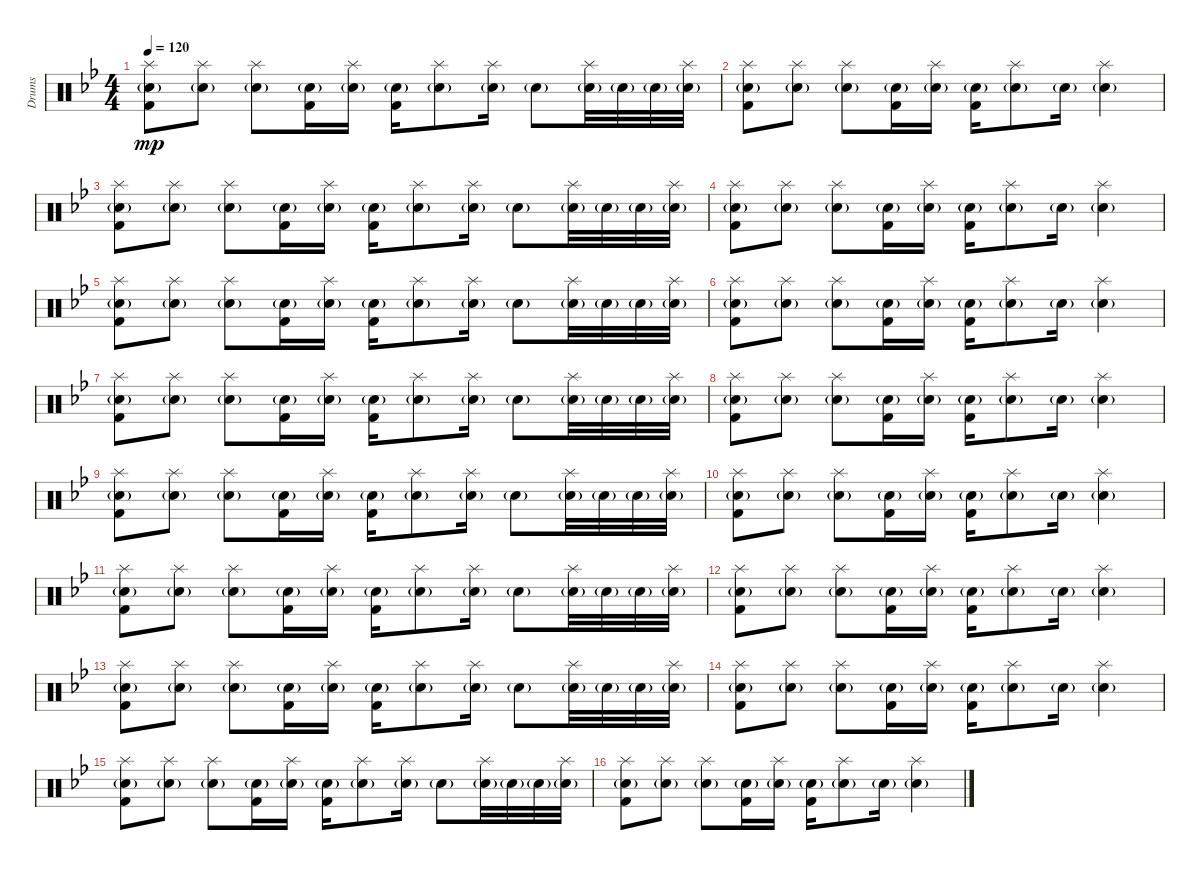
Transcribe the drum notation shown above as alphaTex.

\track ("Drums" "Drums") {instrument percussion}
\staff {score}
\articulation defaults
\ts (4 4)
\tempo 120
\clef neutral
\ks bb
("Splash (hit)" "Electric Snare (hit)"{g} "Kick (hit) 2").8{dy mp} ("Splash (hit)" "Electric Snare (hit)"{g}).8 ("Splash (hit)" "Electric Snare (hit)"{g}).8 ("Electric Snare (hit)"{g} "Kick (hit) 2").16 ("Splash (hit)" "Electric Snare (hit)"{g}).16 ("Electric Snare (hit)"{g} "Kick (hit) 2").16 ("Splash (hit)" "Electric Snare (hit)"{g}).8 ("Splash (hit)" "Electric Snare (hit)"{g}).16 "Electric Snare (hit)"{g}.8 ("Splash (hit)" "Electric Snare (hit)"{g}).32 "Electric Snare (hit)"{g}.32 "Electric Snare (hit)"{g}.32 ("Splash (hit)" "Electric Snare (hit)"{g}).32 |
("Splash (hit)" "Electric Snare (hit)"{g} "Kick (hit) 2").8 ("Splash (hit)" "Electric Snare (hit)"{g}).8 ("Splash (hit)" "Electric Snare (hit)"{g}).8 ("Electric Snare (hit)"{g} "Kick (hit) 2").16 ("Splash (hit)" "Electric Snare (hit)"{g}).16 ("Electric Snare (hit)"{g} "Kick (hit) 2").16 ("Splash (hit)" "Electric Snare (hit)"{g}).8 "Electric Snare (hit)"{g}.16 ("Splash (hit)" "Electric Snare (hit)"{g}).4 |
("Splash (hit)" "Electric Snare (hit)"{g} "Kick (hit) 2").8 ("Splash (hit)" "Electric Snare (hit)"{g}).8 ("Splash (hit)" "Electric Snare (hit)"{g}).8 ("Electric Snare (hit)"{g} "Kick (hit) 2").16 ("Splash (hit)" "Electric Snare (hit)"{g}).16 ("Electric Snare (hit)"{g} "Kick (hit) 2").16 ("Splash (hit)" "Electric Snare (hit)"{g}).8 ("Splash (hit)" "Electric Snare (hit)"{g}).16 "Electric Snare (hit)"{g}.8 ("Splash (hit)" "Electric Snare (hit)"{g}).32 "Electric Snare (hit)"{g}.32 "Electric Snare (hit)"{g}.32 ("Splash (hit)" "Electric Snare (hit)"{g}).32 |
("Splash (hit)" "Electric Snare (hit)"{g} "Kick (hit) 2").8 ("Splash (hit)" "Electric Snare (hit)"{g}).8 ("Splash (hit)" "Electric Snare (hit)"{g}).8 ("Electric Snare (hit)"{g} "Kick (hit) 2").16 ("Splash (hit)" "Electric Snare (hit)"{g}).16 ("Electric Snare (hit)"{g} "Kick (hit) 2").16 ("Splash (hit)" "Electric Snare (hit)"{g}).8 "Electric Snare (hit)"{g}.16 ("Splash (hit)" "Electric Snare (hit)"{g}).4 |
("Splash (hit)" "Electric Snare (hit)"{g} "Kick (hit) 2").8 ("Splash (hit)" "Electric Snare (hit)"{g}).8 ("Splash (hit)" "Electric Snare (hit)"{g}).8 ("Electric Snare (hit)"{g} "Kick (hit) 2").16 ("Splash (hit)" "Electric Snare (hit)"{g}).16 ("Electric Snare (hit)"{g} "Kick (hit) 2").16 ("Splash (hit)" "Electric Snare (hit)"{g}).8 ("Splash (hit)" "Electric Snare (hit)"{g}).16 "Electric Snare (hit)"{g}.8 ("Splash (hit)" "Electric Snare (hit)"{g}).32 "Electric Snare (hit)"{g}.32 "Electric Snare (hit)"{g}.32 ("Splash (hit)" "Electric Snare (hit)"{g}).32 |
("Splash (hit)" "Electric Snare (hit)"{g} "Kick (hit) 2").8 ("Splash (hit)" "Electric Snare (hit)"{g}).8 ("Splash (hit)" "Electric Snare (hit)"{g}).8 ("Electric Snare (hit)"{g} "Kick (hit) 2").16 ("Splash (hit)" "Electric Snare (hit)"{g}).16 ("Electric Snare (hit)"{g} "Kick (hit) 2").16 ("Splash (hit)" "Electric Snare (hit)"{g}).8 "Electric Snare (hit)"{g}.16 ("Splash (hit)" "Electric Snare (hit)"{g}).4 |
("Splash (hit)" "Electric Snare (hit)"{g} "Kick (hit) 2").8 ("Splash (hit)" "Electric Snare (hit)"{g}).8 ("Splash (hit)" "Electric Snare (hit)"{g}).8 ("Electric Snare (hit)"{g} "Kick (hit) 2").16 ("Splash (hit)" "Electric Snare (hit)"{g}).16 ("Electric Snare (hit)"{g} "Kick (hit) 2").16 ("Splash (hit)" "Electric Snare (hit)"{g}).8 ("Splash (hit)" "Electric Snare (hit)"{g}).16 "Electric Snare (hit)"{g}.8 ("Splash (hit)" "Electric Snare (hit)"{g}).32 "Electric Snare (hit)"{g}.32 "Electric Snare (hit)"{g}.32 ("Splash (hit)" "Electric Snare (hit)"{g}).32 |
("Splash (hit)" "Electric Snare (hit)"{g} "Kick (hit) 2").8 ("Splash (hit)" "Electric Snare (hit)"{g}).8 ("Splash (hit)" "Electric Snare (hit)"{g}).8 ("Electric Snare (hit)"{g} "Kick (hit) 2").16 ("Splash (hit)" "Electric Snare (hit)"{g}).16 ("Electric Snare (hit)"{g} "Kick (hit) 2").16 ("Splash (hit)" "Electric Snare (hit)"{g}).8 "Electric Snare (hit)"{g}.16 ("Splash (hit)" "Electric Snare (hit)"{g}).4 |
("Splash (hit)" "Electric Snare (hit)"{g} "Kick (hit) 2").8 ("Splash (hit)" "Electric Snare (hit)"{g}).8 ("Splash (hit)" "Electric Snare (hit)"{g}).8 ("Electric Snare (hit)"{g} "Kick (hit) 2").16 ("Splash (hit)" "Electric Snare (hit)"{g}).16 ("Electric Snare (hit)"{g} "Kick (hit) 2").16 ("Splash (hit)" "Electric Snare (hit)"{g}).8 ("Splash (hit)" "Electric Snare (hit)"{g}).16 "Electric Snare (hit)"{g}.8 ("Splash (hit)" "Electric Snare (hit)"{g}).32 "Electric Snare (hit)"{g}.32 "Electric Snare (hit)"{g}.32 ("Splash (hit)" "Electric Snare (hit)"{g}).32 |
("Splash (hit)" "Electric Snare (hit)"{g} "Kick (hit) 2").8 ("Splash (hit)" "Electric Snare (hit)"{g}).8 ("Splash (hit)" "Electric Snare (hit)"{g}).8 ("Electric Snare (hit)"{g} "Kick (hit) 2").16 ("Splash (hit)" "Electric Snare (hit)"{g}).16 ("Electric Snare (hit)"{g} "Kick (hit) 2").16 ("Splash (hit)" "Electric Snare (hit)"{g}).8 "Electric Snare (hit)"{g}.16 ("Splash (hit)" "Electric Snare (hit)"{g}).4 |
("Splash (hit)" "Electric Snare (hit)"{g} "Kick (hit) 2").8 ("Splash (hit)" "Electric Snare (hit)"{g}).8 ("Splash (hit)" "Electric Snare (hit)"{g}).8 ("Electric Snare (hit)"{g} "Kick (hit) 2").16 ("Splash (hit)" "Electric Snare (hit)"{g}).16 ("Electric Snare (hit)"{g} "Kick (hit) 2").16 ("Splash (hit)" "Electric Snare (hit)"{g}).8 ("Splash (hit)" "Electric Snare (hit)"{g}).16 "Electric Snare (hit)"{g}.8 ("Splash (hit)" "Electric Snare (hit)"{g}).32 "Electric Snare (hit)"{g}.32 "Electric Snare (hit)"{g}.32 ("Splash (hit)" "Electric Snare (hit)"{g}).32 |
("Splash (hit)" "Electric Snare (hit)"{g} "Kick (hit) 2").8 ("Splash (hit)" "Electric Snare (hit)"{g}).8 ("Splash (hit)" "Electric Snare (hit)"{g}).8 ("Electric Snare (hit)"{g} "Kick (hit) 2").16 ("Splash (hit)" "Electric Snare (hit)"{g}).16 ("Electric Snare (hit)"{g} "Kick (hit) 2").16 ("Splash (hit)" "Electric Snare (hit)"{g}).8 "Electric Snare (hit)"{g}.16 ("Splash (hit)" "Electric Snare (hit)"{g}).4 |
("Splash (hit)" "Electric Snare (hit)"{g} "Kick (hit) 2").8 ("Splash (hit)" "Electric Snare (hit)"{g}).8 ("Splash (hit)" "Electric Snare (hit)"{g}).8 ("Electric Snare (hit)"{g} "Kick (hit) 2").16 ("Splash (hit)" "Electric Snare (hit)"{g}).16 ("Electric Snare (hit)"{g} "Kick (hit) 2").16 ("Splash (hit)" "Electric Snare (hit)"{g}).8 ("Splash (hit)" "Electric Snare (hit)"{g}).16 "Electric Snare (hit)"{g}.8 ("Splash (hit)" "Electric Snare (hit)"{g}).32 "Electric Snare (hit)"{g}.32 "Electric Snare (hit)"{g}.32 ("Splash (hit)" "Electric Snare (hit)"{g}).32 |
("Splash (hit)" "Electric Snare (hit)"{g} "Kick (hit) 2").8 ("Splash (hit)" "Electric Snare (hit)"{g}).8 ("Splash (hit)" "Electric Snare (hit)"{g}).8 ("Electric Snare (hit)"{g} "Kick (hit) 2").16 ("Splash (hit)" "Electric Snare (hit)"{g}).16 ("Electric Snare (hit)"{g} "Kick (hit) 2").16 ("Splash (hit)" "Electric Snare (hit)"{g}).8 "Electric Snare (hit)"{g}.16 ("Splash (hit)" "Electric Snare (hit)"{g}).4 |
("Splash (hit)" "Electric Snare (hit)"{g} "Kick (hit) 2").8 ("Splash (hit)" "Electric Snare (hit)"{g}).8 ("Splash (hit)" "Electric Snare (hit)"{g}).8 ("Electric Snare (hit)"{g} "Kick (hit) 2").16 ("Splash (hit)" "Electric Snare (hit)"{g}).16 ("Electric Snare (hit)"{g} "Kick (hit) 2").16 ("Splash (hit)" "Electric Snare (hit)"{g}).8 ("Splash (hit)" "Electric Snare (hit)"{g}).16 "Electric Snare (hit)"{g}.8 ("Splash (hit)" "Electric Snare (hit)"{g}).32 "Electric Snare (hit)"{g}.32 "Electric Snare (hit)"{g}.32 ("Splash (hit)" "Electric Snare (hit)"{g}).32 |
("Splash (hit)" "Electric Snare (hit)"{g} "Kick (hit) 2").8 ("Splash (hit)" "Electric Snare (hit)"{g}).8 ("Splash (hit)" "Electric Snare (hit)"{g}).8 ("Electric Snare (hit)"{g} "Kick (hit) 2").16 ("Splash (hit)" "Electric Snare (hit)"{g}).16 ("Electric Snare (hit)"{g} "Kick (hit) 2").16 ("Splash (hit)" "Electric Snare (hit)"{g}).8 "Electric Snare (hit)"{g}.16 ("Splash (hit)" "Electric Snare (hit)"{g}).4
